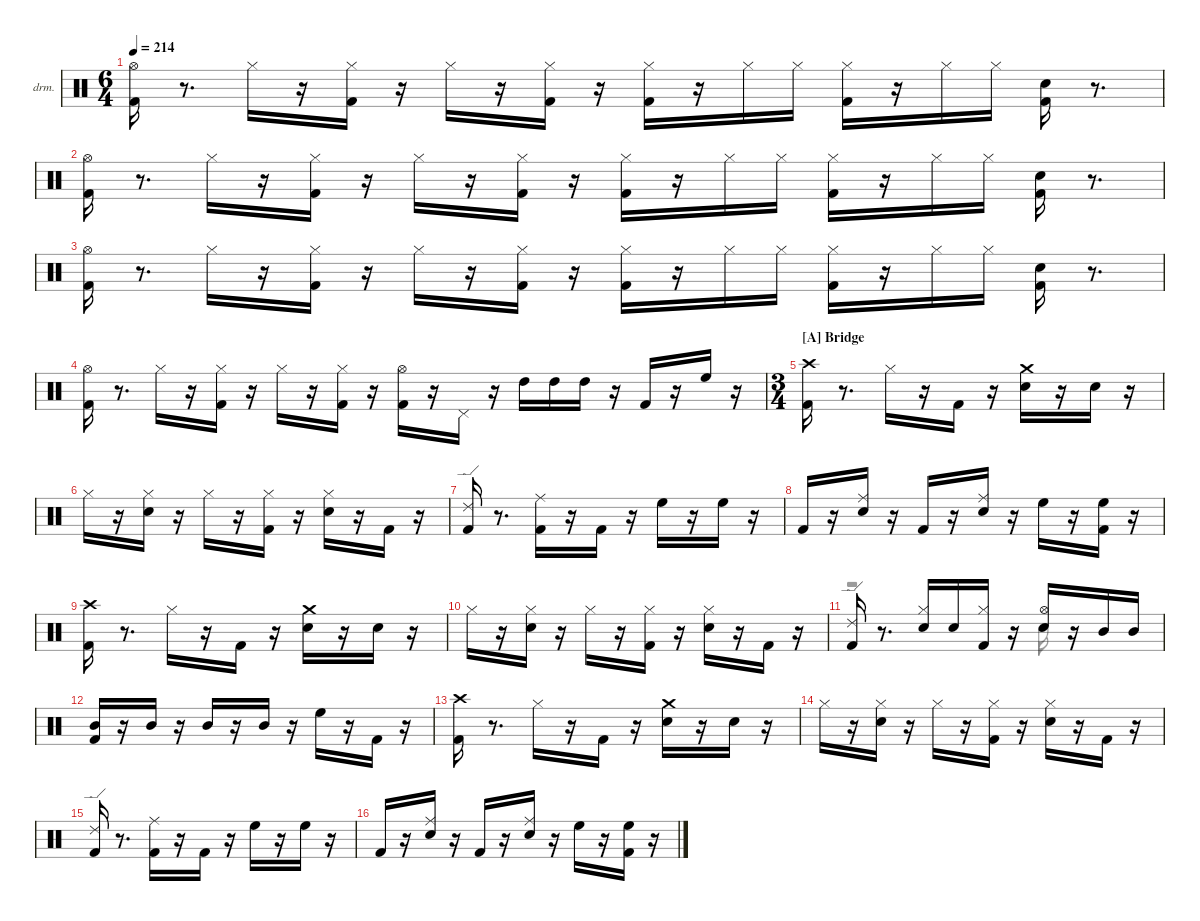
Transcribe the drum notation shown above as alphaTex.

\hideDynamics
\bracketExtendMode nobrackets
\firstSystemTrackNameOrientation horizontal
\otherSystemsTrackNameOrientation horizontal
\track ("EZdrummer 3" "drm.") {instrument percussion}
\staff {score}
\articulation defaults
\voice
\ts (6 4)
\tempo 214
\clef neutral
\ks aminor
("Kick (hit) 2" "Hi-Hat (open)"{acc #}).16{dy ff beam Down} r.8{d beam Down} "Hi-Hat (closed)"{acc #}.16{dy f beam Down} r.16{beam Down} ("Kick (hit) 2" "Hi-Hat (closed)"{acc #}).16{dy ff beam Down} r.16{beam Down} "Hi-Hat (closed)"{acc #}.16{beam Down} r.16{beam Down} ("Kick (hit) 2" "Hi-Hat (closed)"{acc #}).16{beam Down} r.16{beam Down} ("Kick (hit) 2" "Hi-Hat (closed)"{acc #}).16{beam Down} r.16{beam Down} "Hi-Hat (closed)"{acc #}.16{dy f beam Down} "Hi-Hat (closed)"{acc #}.16{dy mp beam Down} ("Kick (hit) 2" "Hi-Hat (closed)"{acc #}).16{dy ff beam Down} r.16{beam Down} "Hi-Hat (closed)"{acc #}.16{dy f beam Down} "Hi-Hat (closed)"{acc #}.16{dy mf beam Down} ("Kick (hit) 2" "Snare (hit) 2").16{dy ff beam Down} r.8{d beam Down} |
("Kick (hit) 2" "Hi-Hat (open)"{acc #}).16{beam Down} r.8{d beam Down} "Hi-Hat (closed)"{acc #}.16{dy f beam Down} r.16{beam Down} ("Kick (hit) 2" "Hi-Hat (closed)"{acc #}).16{dy ff beam Down} r.16{beam Down} "Hi-Hat (closed)"{acc #}.16{beam Down} r.16{beam Down} ("Kick (hit) 2" "Hi-Hat (closed)"{acc #}).16{beam Down} r.16{beam Down} ("Kick (hit) 2" "Hi-Hat (closed)"{acc #}).16{beam Down} r.16{beam Down} "Hi-Hat (closed)"{acc #}.16{dy f beam Down} "Hi-Hat (closed)"{acc #}.16{dy mp beam Down} ("Kick (hit) 2" "Hi-Hat (closed)"{acc #}).16{dy ff beam Down} r.16{beam Down} "Hi-Hat (closed)"{acc #}.16{dy f beam Down} "Hi-Hat (closed)"{acc #}.16{dy mf beam Down} ("Kick (hit) 2" "Snare (hit) 2").16{dy ff beam Down} r.8{d beam Down} |
("Kick (hit) 2" "Hi-Hat (open)"{acc #}).16{beam Down} r.8{d beam Down} "Hi-Hat (closed)"{acc #}.16{dy f beam Down} r.16{beam Down} ("Kick (hit) 2" "Hi-Hat (closed)"{acc #}).16{dy ff beam Down} r.16{beam Down} "Hi-Hat (closed)"{acc #}.16{beam Down} r.16{beam Down} ("Kick (hit) 2" "Hi-Hat (closed)"{acc #}).16{beam Down} r.16{beam Down} ("Kick (hit) 2" "Hi-Hat (closed)"{acc #}).16{beam Down} r.16{beam Down} "Hi-Hat (closed)"{acc #}.16{dy f beam Down} "Hi-Hat (closed)"{acc #}.16{dy mp beam Down} ("Kick (hit) 2" "Hi-Hat (closed)"{acc #}).16{dy ff beam Down} r.16{beam Down} "Hi-Hat (closed)"{acc #}.16{dy f beam Down} "Hi-Hat (closed)"{acc #}.16{dy mf beam Down} ("Kick (hit) 2" "Snare (hit) 2").16{dy ff beam Down} r.8{d beam Down} |
("Kick (hit) 2" "Hi-Hat (open)"{acc #}).16{beam Down} r.8{d beam Down} "Hi-Hat (closed)"{acc #}.16{dy f beam Down} r.16{beam Down} ("Kick (hit) 2" "Hi-Hat (closed)"{acc #}).16{dy ff beam Down} r.16{beam Down} "Hi-Hat (closed)"{acc #}.16{beam Down} r.16{beam Down} ("Kick (hit) 2" "Hi-Hat (closed)"{acc #}).16{beam Down} r.16{beam Down} ("Kick (hit) 2" "Hi-Hat (open)"{acc #}).16{beam Down} r.16{beam Down} "Pedal Hi-Hat (hit)"{acc #}.16{beam Up} r.16{beam Up} "High Tom (hit)".16{dy f beam Down} "High Tom (hit)".16{dy mp beam Down} "High Tom (hit)".16{dy fff beam Down} r.16{beam Down} "Kick (hit) 2".16{dy ff beam Up} r.16{beam Up} "High Floor Tom (hit)".16{dy fff beam Down} r.16{beam Down} |
\ts (3 4)
\section ("A" "Bridge")
("Kick (hit) 2" "Crash high (hit)"{acc #}).16{beam Down} r.8{d beam Down} "Hi-Hat (closed)"{acc #}.16{dy f beam Down} r.16{beam Down} "Kick (hit) 2".16{beam Up} r.16{beam Up} ("Snare (hit) 2" "Crash medium (hit)").16{beam Down} r.16{beam Down} "Snare (hit) 2".16{dy pp beam Down} r.16{beam Down} |
"Hi-Hat (closed)"{acc #}.16{dy ff beam Down} r.16{beam Down} ("Snare (hit) 2" "Hi-Hat (closed)"{acc #}).16{dy f beam Down} r.16{beam Down} "Hi-Hat (closed)"{acc #}.16{beam Down} r.16{beam Down} ("Kick (hit) 2" "Hi-Hat (closed)"{acc #}).16{beam Down} r.16{beam Down} ("Snare (hit) 2" "Hi-Hat (closed)"{acc #}).16{beam Down} r.16{beam Down} "Kick (hit) 2".16{dy pp beam Up} r.16{beam Up} |
("Kick (hit) 2" "Ride (edge) 2").16{dy fff beam Up} r.8{d beam Up} ("Kick (hit) 2" "Ride (middle)"{acc #}).16{dy mf beam Down} r.16{beam Down} "Kick (hit) 2".16{dy fff beam Up} r.16{beam Up} "High Floor Tom (hit)".16{beam Down} r.16{beam Down} "High Floor Tom (hit)".16{dy ff beam Down} r.16{beam Down} |
"Kick (hit) 2".16{beam Up} r.16{beam Up} ("Snare (hit) 2" "Ride (middle)"{acc #}).16{dy f beam Down} r.16{beam Down} "Kick (hit) 2".16{dy ff beam Up} r.16{beam Up} ("Snare (hit) 2" "Ride (middle)"{acc #}).16{beam Down} r.16{beam Down} "High Floor Tom (hit)".16{dy f beam Down} r.16{beam Down} ("Kick (hit) 2" "High Floor Tom (hit)").16{dy mf beam Down} r.16{beam Down} |
("Kick (hit) 2" "Crash high (hit)"{acc #}).16{dy ff beam Down} r.8{d beam Down} "Hi-Hat (closed)"{acc #}.16{dy f beam Down} r.16{beam Down} "Kick (hit) 2".16{beam Up} r.16{beam Up} ("Snare (hit) 2" "Crash medium (hit)").16{beam Down} r.16{beam Down} "Snare (hit) 2".16{dy pp beam Down} r.16{beam Down} |
"Hi-Hat (closed)"{acc #}.16{dy ff beam Down} r.16{beam Down} ("Snare (hit) 2" "Hi-Hat (closed)"{acc #}).16{dy f beam Down} r.16{beam Down} "Hi-Hat (closed)"{acc #}.16{beam Down} r.16{beam Down} ("Kick (hit) 2" "Hi-Hat (closed)"{acc #}).16{beam Down} r.16{beam Down} ("Snare (hit) 2" "Hi-Hat (closed)"{acc #}).16{beam Down} r.16{beam Down} "Kick (hit) 2".16{dy pp beam Up} r.16{beam Up} |
("Kick (hit) 2" "Ride (edge) 2").16{dy ff beam Up} r.8{d beam Up} ("Snare (hit) 2" "Hi-Hat (closed)"{acc #}).16{dy p beam Up} "Snare (hit) 2".16{beam Up} ("Kick (hit) 2" "Hi-Hat (closed)"{acc #}).16{dy mf beam Up} r.16{beam Up} ("Snare (hit) 2" "Hi-Hat (open)"{acc #}).16{beam Up} r.16{beam Up} "Mid Tom (hit)".16{dy mp beam Up} "Mid Tom (hit)".16{dy pp beam Up} |
("Kick (hit) 2" "Mid Tom (hit)").16{dy mf beam Up} r.16{beam Up} "Mid Tom (hit)".16{beam Up} r.16{beam Up} "Mid Tom (hit)".16{dy ff beam Up} r.16{beam Up} "Mid Tom (hit)".16{dy f beam Up} r.16{beam Up} "High Floor Tom (hit)".16{dy ff beam Down} r.16{beam Down} "Kick (hit) 2".16{dy mf beam Up} r.16{beam Up} |
("Kick (hit) 2" "Crash high (hit)"{acc #}).16{dy fff beam Down} r.8{d beam Down} "Hi-Hat (closed)"{acc #}.16{dy f beam Down} r.16{beam Down} "Kick (hit) 2".16{beam Up} r.16{beam Up} ("Snare (hit) 2" "Crash medium (hit)").16{beam Down} r.16{beam Down} "Snare (hit) 2".16{dy pp beam Down} r.16{beam Down} |
"Hi-Hat (closed)"{acc #}.16{dy ff beam Down} r.16{beam Down} ("Snare (hit) 2" "Hi-Hat (closed)"{acc #}).16{dy f beam Down} r.16{beam Down} "Hi-Hat (closed)"{acc #}.16{beam Down} r.16{beam Down} ("Kick (hit) 2" "Hi-Hat (closed)"{acc #}).16{beam Down} r.16{beam Down} ("Snare (hit) 2" "Hi-Hat (closed)"{acc #}).16{beam Down} r.16{beam Down} "Kick (hit) 2".16{dy pp beam Up} r.16{beam Up} |
("Kick (hit) 2" "Ride (edge) 2").16{dy fff beam Up} r.8{d beam Up} ("Kick (hit) 2" "Ride (middle)"{acc #}).16{dy mf beam Down} r.16{beam Down} "Kick (hit) 2".16{dy fff beam Up} r.16{beam Up} "High Floor Tom (hit)".16{beam Down} r.16{beam Down} "High Floor Tom (hit)".16{dy ff beam Down} r.16{beam Down} |
"Kick (hit) 2".16{beam Up} r.16{beam Up} ("Snare (hit) 2" "Ride (middle)"{acc #}).16{dy f beam Down} r.16{beam Down} "Kick (hit) 2".16{dy ff beam Up} r.16{beam Up} ("Snare (hit) 2" "Ride (middle)"{acc #}).16{beam Down} r.16{beam Down} "High Floor Tom (hit)".16{dy f beam Down} r.16{beam Down} ("Kick (hit) 2" "High Floor Tom (hit)").16{dy mf beam Down} r.16{beam Down}
\voice
\clef neutral
\ottava regular
\simile none
\ks aminor
|
|
|
|
|
|
|
|
|
|
r.2{beam Down} "Snare (hit) 2".16{beam Down} |
|
|
|
|
